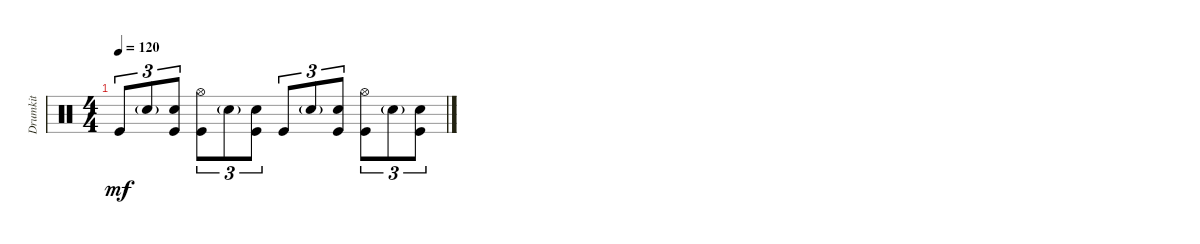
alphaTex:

\track ("Drumkit" "Drumkit") {instrument percussion}
\staff {score}
\articulation defaults
\ts (4 4)
\tempo 120
\clef neutral
\ks c "Kick (hit)".8{tu (3 2) dy mf} "Snare (hit) 2"{g}.8{tu (3 2)}
("Kick (hit)" "Snare (hit) 2").8{tu (3 2)} ("Kick (hit)" "Hi-Hat (open)").8{tu (3 2)} "Snare (hit) 2"{g}.8{tu (3 2)} ("Kick (hit)" "Snare (hit) 2").8{tu (3 2)} "Kick (hit)".8{tu (3 2)} "Snare (hit) 2"{g}.8{tu (3 2)} ("Kick (hit)" "Snare (hit) 2").8{tu (3 2)} ("Kick (hit)" "Hi-Hat (open)").8{tu (3 2)} "Snare (hit) 2"{g}.8{tu (3 2)} ("Kick (hit)" "Snare (hit) 2").8{tu (3 2)}
